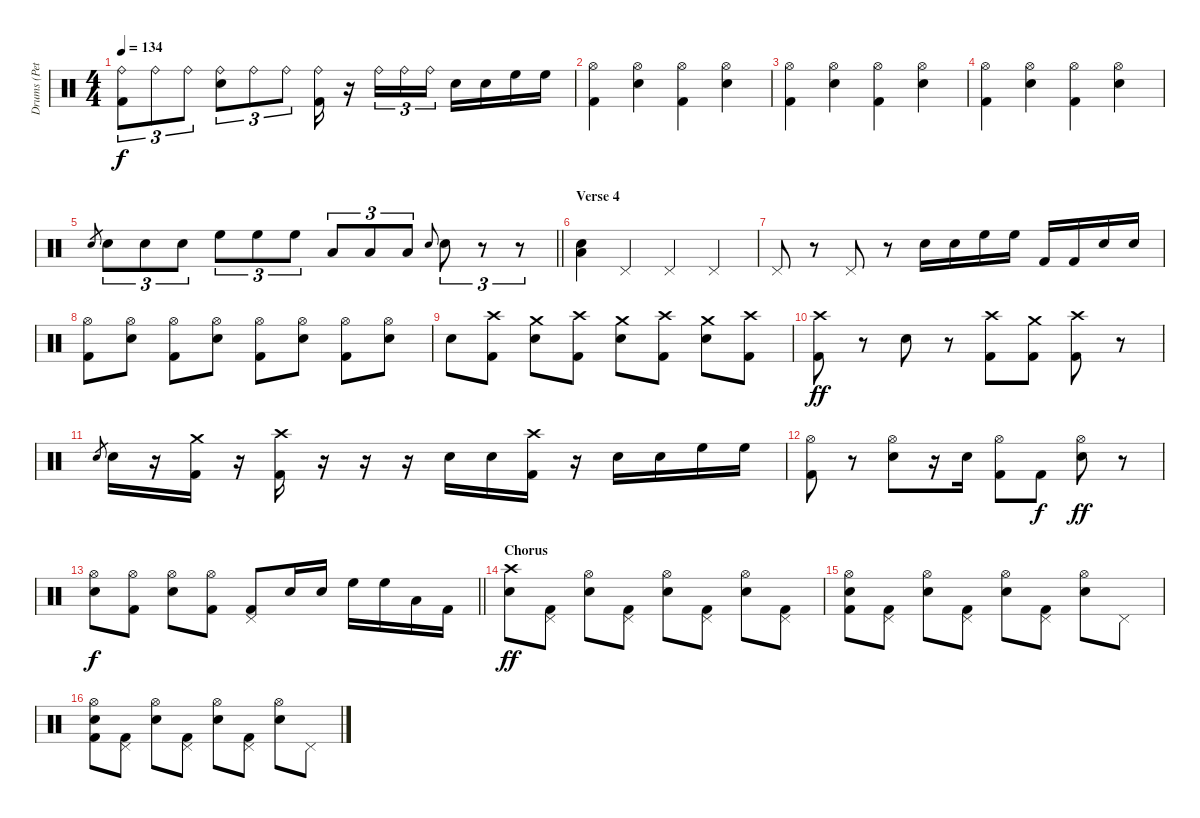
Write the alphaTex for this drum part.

\track ("Drums (Peter)" "Drums (Pet") {instrument percussion}
\staff {score}
\articulation defaults
\ts (4 4)
\tempo 134
\clef neutral
\ks c
("Ride (bell)" "Kick (hit) 2").8{tu (3 2) dy f} "Ride (bell)".8{tu (3 2)} "Ride (bell)".8{tu (3 2)} ("Ride (bell)" "Electric Snare (hit)").8{tu (3 2)} "Ride (bell)".8{tu (3 2)} "Ride (bell)".8{tu (3 2)} ("Ride (bell)" "Kick (hit) 2").16 r.16 "Ride (bell)".16{tu (3 2)} "Ride (bell)".16{tu (3 2)} "Ride (bell)".16{tu (3 2)} "Electric Snare (hit)".16 "Electric Snare (hit)".16 "High Floor Tom (hit)".16 "High Floor Tom (hit)".16 |
("Hi-Hat (open)" "Kick (hit) 2").4 ("Hi-Hat (open)" "Electric Snare (hit)").4 ("Hi-Hat (open)" "Kick (hit) 2").4 ("Hi-Hat (open)" "Electric Snare (hit)").4 |
("Hi-Hat (open)" "Kick (hit) 2").4 ("Hi-Hat (open)" "Electric Snare (hit)").4 ("Hi-Hat (open)" "Kick (hit) 2").4 ("Hi-Hat (open)" "Electric Snare (hit)").4 |
("Hi-Hat (open)" "Kick (hit) 2").4 ("Hi-Hat (open)" "Electric Snare (hit)").4 ("Hi-Hat (open)" "Kick (hit) 2").4 ("Hi-Hat (open)" "Electric Snare (hit)").4 |
\barLineRight lightlight "Electric Snare (hit)".8{gr} "Electric Snare (hit)".8{tu (3 2)} "Electric Snare (hit)".8{tu (3 2)} "Electric Snare (hit)".8{tu (3 2)} "High Floor Tom (hit)".8{tu (3 2)} "High Floor Tom (hit)".8{tu (3 2)} "High Floor Tom (hit)".8{tu (3 2)} "Low Tom (hit)".8{tu (3 2)} "Low Tom (hit)".8{tu (3 2)} "Low Tom (hit)".8{tu (3 2)} "Electric Snare (hit)".8{gr onbeat} "Electric Snare (hit)".8{tu (3 2)}
r.8{tu (3 2)} r.8{tu (3 2)} |
\section ("" "Verse 4")
("Electric Snare (hit)" "Low Floor Tom (hit)").4 "Pedal Hi-Hat (hit)".4 "Pedal Hi-Hat (hit)".4 "Pedal Hi-Hat (hit)".4 |
"Pedal Hi-Hat (hit)".8 r.8 "Pedal Hi-Hat (hit)".8 r.8 "Electric Snare (hit)".16 "Electric Snare (hit)".16 "High Floor Tom (hit)".16 "High Floor Tom (hit)".16 "Kick (hit) 2".16 "Kick (hit) 2".16 "Electric Snare (hit)".16 "Electric Snare (hit)".16 |
("Hi-Hat (open)" "Kick (hit) 2").8 ("Hi-Hat (open)" "Electric Snare (hit)").8 ("Hi-Hat (open)" "Kick (hit) 2").8 ("Hi-Hat (open)" "Electric Snare (hit)").8 ("Hi-Hat (open)" "Kick (hit) 2").8 ("Hi-Hat (open)" "Electric Snare (hit)").8 ("Hi-Hat (open)" "Kick (hit) 2").8 ("Hi-Hat (open)" "Electric Snare (hit)").8 |
"Electric Snare (hit)".8 ("Crash high (hit)" "Kick (hit) 2").8 ("Crash medium (hit)" "Electric Snare (hit)").8 ("Crash high (hit)" "Kick (hit) 2").8 ("Crash medium (hit)" "Electric Snare (hit)").8 ("Crash high (hit)" "Kick (hit) 2").8 ("Crash medium (hit)" "Electric Snare (hit)").8 ("Crash high (hit)" "Kick (hit) 2").8 |
("Crash high (hit)" "Kick (hit) 2").8{dy ff} r.8 "Electric Snare (hit)".8 r.8 ("Crash high (hit)" "Kick (hit) 2").8 ("Crash medium (hit)" "Kick (hit) 2").8 ("Crash high (hit)" "Kick (hit) 2").8 r.8 |
"Electric Snare (hit)".8{gr} "Electric Snare (hit)".16 r.16 ("Crash medium (hit)" "Kick (hit) 2").16 r.16 ("Crash high (hit)" "Kick (hit) 2").16 r.16 r.16 r.16 "Electric Snare (hit)".16 "Electric Snare (hit)".16 ("Crash high (hit)" "Kick (hit) 2").16 r.16 "Electric Snare (hit)".16 "Electric Snare (hit)".16 "High Floor Tom (hit)".16 "High Floor Tom (hit)".16 |
("Hi-Hat (open)" "Kick (hit) 2").8 r.8 ("Hi-Hat (open)" "Electric Snare (hit)").8 r.16 "Snare (hit) 2".16 ("Hi-Hat (open)" "Kick (hit) 2").8 "Kick (hit) 2".8{dy f} ("Hi-Hat (open)" "Electric Snare (hit)").8{dy ff} r.8 |
\barLineRight lightlight
("Hi-Hat (open)" "Electric Snare (hit)").8{dy f} ("Hi-Hat (open)" "Kick (hit) 2").8 ("Hi-Hat (open)" "Electric Snare (hit)").8 ("Hi-Hat (open)" "Kick (hit) 2").8 ("Pedal Hi-Hat (hit)" "Kick (hit) 2").8 "Electric Snare (hit)".16 "Electric Snare (hit)".16 "High Floor Tom (hit)".16 "High Floor Tom (hit)".16 "Low Floor Tom (hit)".16 "Kick (hit) 2".16 |
\section ("" "Chorus")
("Crash high (hit)" "Electric Snare (hit)").8{dy ff} ("Pedal Hi-Hat (hit)" "Kick (hit) 2").8 ("Hi-Hat (open)" "Electric Snare (hit)").8 ("Pedal Hi-Hat (hit)" "Kick (hit) 2").8 ("Hi-Hat (open)" "Electric Snare (hit)").8 ("Pedal Hi-Hat (hit)" "Kick (hit) 2").8 ("Hi-Hat (open)" "Electric Snare (hit)").8 ("Pedal Hi-Hat (hit)" "Kick (hit) 2").8 |
("Hi-Hat (open)" "Electric Snare (hit)" "Kick (hit) 2").8 ("Pedal Hi-Hat (hit)" "Kick (hit) 2").8 ("Hi-Hat (open)" "Electric Snare (hit)").8 ("Pedal Hi-Hat (hit)" "Kick (hit) 2").8 ("Hi-Hat (open)" "Electric Snare (hit)").8 ("Pedal Hi-Hat (hit)" "Kick (hit) 2").8 ("Hi-Hat (open)" "Electric Snare (hit)").8 "Pedal Hi-Hat (hit)".8 |
("Hi-Hat (open)" "Electric Snare (hit)" "Kick (hit) 2").8 ("Pedal Hi-Hat (hit)" "Kick (hit) 2").8 ("Hi-Hat (open)" "Electric Snare (hit)").8 ("Pedal Hi-Hat (hit)" "Kick (hit) 2").8 ("Hi-Hat (open)" "Electric Snare (hit)").8 ("Pedal Hi-Hat (hit)" "Kick (hit) 2").8 ("Hi-Hat (open)" "Electric Snare (hit)").8 "Pedal Hi-Hat (hit)".8
